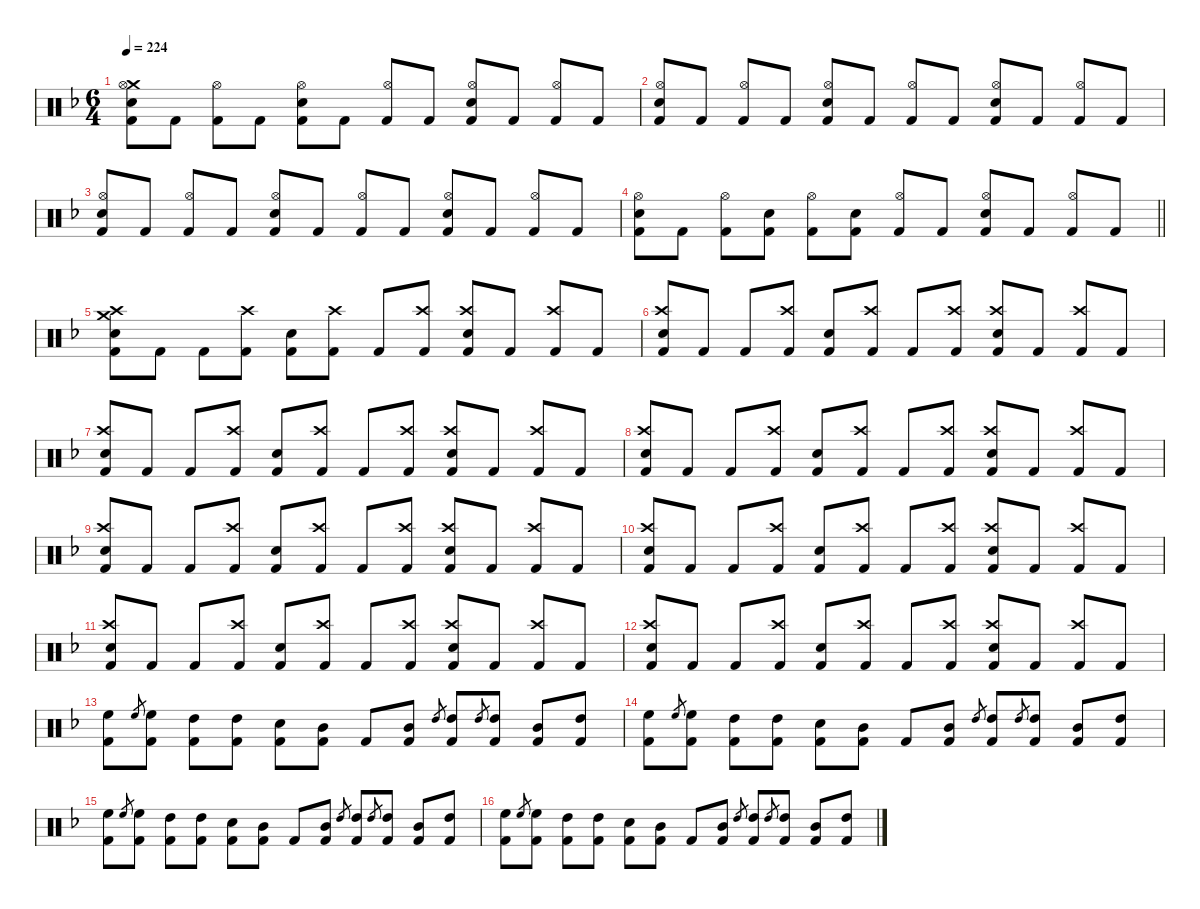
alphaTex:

\hideDynamics
\bracketExtendMode nobrackets
\singleTrackTrackNamePolicy hidden
\multiTrackTrackNamePolicy hidden
\firstSystemTrackNameMode fullname
\firstSystemTrackNameOrientation horizontal
\otherSystemsTrackNameOrientation horizontal
\track ("Drumkit" "Drums") {defaultSystemsLayout 4 instrument percussion}
\staff {score}
\articulation defaults
\ts (6 4)
\tempo 224
\clef neutral
\ks dminor
("Crash medium (hit)"{acc forcenatural} "Hi-Hat (open)"{acc forcenatural} "Snare (hit) 2"{acc forcenatural} "Kick (hit) 2"{acc forcenatural}).8{dy f beam Down} "Kick (hit) 2"{acc forcenatural}.8{beam Down} ("Hi-Hat (open)"{acc forcenatural} "Kick (hit) 2"{acc forcenatural}).8{beam Down} "Kick (hit) 2"{acc forcenatural}.8{beam Down} ("Hi-Hat (open)"{acc forcenatural} "Snare (hit) 2"{acc forcenatural} "Kick (hit) 2"{acc forcenatural}).8{beam Down} "Kick (hit) 2"{acc forcenatural}.8{beam Down} ("Hi-Hat (open)"{acc forcenatural} "Kick (hit) 2"{acc forcenatural}).8{beam Up} "Kick (hit) 2"{acc forcenatural}.8{beam Up} ("Hi-Hat (open)"{acc forcenatural} "Snare (hit) 2"{acc forcenatural} "Kick (hit) 2"{acc forcenatural}).8{beam Up} "Kick (hit) 2"{acc forcenatural}.8{beam Up} ("Hi-Hat (open)"{acc forcenatural} "Kick (hit) 2"{acc forcenatural}).8{beam Up} "Kick (hit) 2"{acc forcenatural}.8{beam Up} |
("Hi-Hat (open)"{acc forcenatural} "Snare (hit) 2"{acc forcenatural} "Kick (hit) 2"{acc forcenatural}).8{beam Up} "Kick (hit) 2"{acc forcenatural}.8{beam Up} ("Hi-Hat (open)"{acc forcenatural} "Kick (hit) 2"{acc forcenatural}).8{beam Up} "Kick (hit) 2"{acc forcenatural}.8{beam Up} ("Hi-Hat (open)"{acc forcenatural} "Snare (hit) 2"{acc forcenatural} "Kick (hit) 2"{acc forcenatural}).8{beam Up} "Kick (hit) 2"{acc forcenatural}.8{beam Up} ("Hi-Hat (open)"{acc forcenatural} "Kick (hit) 2"{acc forcenatural}).8{beam Up} "Kick (hit) 2"{acc forcenatural}.8{beam Up} ("Hi-Hat (open)"{acc forcenatural} "Snare (hit) 2"{acc forcenatural} "Kick (hit) 2"{acc forcenatural}).8{beam Up} "Kick (hit) 2"{acc forcenatural}.8{beam Up} ("Hi-Hat (open)"{acc forcenatural} "Kick (hit) 2"{acc forcenatural}).8{beam Up} "Kick (hit) 2"{acc forcenatural}.8{beam Up} |
("Hi-Hat (open)"{acc forcenatural} "Snare (hit) 2"{acc forcenatural} "Kick (hit) 2"{acc forcenatural}).8{beam Up} "Kick (hit) 2"{acc forcenatural}.8{beam Up} ("Hi-Hat (open)"{acc forcenatural} "Kick (hit) 2"{acc forcenatural}).8{beam Up} "Kick (hit) 2"{acc forcenatural}.8{beam Up} ("Hi-Hat (open)"{acc forcenatural} "Snare (hit) 2"{acc forcenatural} "Kick (hit) 2"{acc forcenatural}).8{beam Up} "Kick (hit) 2"{acc forcenatural}.8{beam Up} ("Hi-Hat (open)"{acc forcenatural} "Kick (hit) 2"{acc forcenatural}).8{beam Up} "Kick (hit) 2"{acc forcenatural}.8{beam Up} ("Hi-Hat (open)"{acc forcenatural} "Snare (hit) 2"{acc forcenatural} "Kick (hit) 2"{acc forcenatural}).8{beam Up} "Kick (hit) 2"{acc forcenatural}.8{beam Up} ("Hi-Hat (open)"{acc forcenatural} "Kick (hit) 2"{acc forcenatural}).8{beam Up} "Kick (hit) 2"{acc forcenatural}.8{beam Up} |
\barLineRight lightlight
("Hi-Hat (open)"{acc forcenatural} "Snare (hit) 2"{acc forcenatural} "Kick (hit) 2"{acc forcenatural}).8{beam Down} "Kick (hit) 2"{acc forcenatural}.8{beam Down} ("Hi-Hat (open)"{acc forcenatural} "Kick (hit) 2"{acc forcenatural}).8{beam Down} ("Snare (hit) 2"{acc forcenatural} "Kick (hit) 2"{acc forcenatural}).8{beam Down} ("Hi-Hat (open)"{acc forcenatural} "Kick (hit) 2"{acc forcenatural}).8{beam Down} ("Snare (hit) 2"{acc forcenatural} "Kick (hit) 2"{acc forcenatural}).8{beam Down} ("Hi-Hat (open)"{acc forcenatural} "Kick (hit) 2"{acc forcenatural}).8{beam Up} "Kick (hit) 2"{acc forcenatural}.8{beam Up} ("Hi-Hat (open)"{acc forcenatural} "Snare (hit) 2"{acc forcenatural} "Kick (hit) 2"{acc forcenatural}).8{beam Up} "Kick (hit) 2"{acc forcenatural}.8{beam Up} ("Hi-Hat (open)"{acc forcenatural} "Kick (hit) 2"{acc forcenatural}).8{beam Up} "Kick (hit) 2"{acc forcenatural}.8{beam Up} |
("Crash medium (hit)"{acc forcenatural} "Crash high (hit)"{acc forcenatural} "Snare (hit) 2"{acc forcenatural} "Kick (hit) 2"{acc forcenatural}).8{beam Down} "Kick (hit) 2"{acc forcenatural}.8{beam Down} "Kick (hit) 2"{acc forcenatural}.8{beam Down} ("Crash high (hit)"{acc forcenatural} "Kick (hit) 2"{acc forcenatural}).8{beam Down} ("Snare (hit) 2"{acc forcenatural} "Kick (hit) 2"{acc forcenatural}).8{beam Down} ("Crash high (hit)"{acc forcenatural} "Kick (hit) 2"{acc forcenatural}).8{beam Down} "Kick (hit) 2"{acc forcenatural}.8{beam Up} ("Crash high (hit)"{acc forcenatural} "Kick (hit) 2"{acc forcenatural}).8{beam Up} ("Crash high (hit)"{acc forcenatural} "Snare (hit) 2"{acc forcenatural} "Kick (hit) 2"{acc forcenatural}).8{beam Up} "Kick (hit) 2"{acc forcenatural}.8{beam Up} ("Crash high (hit)"{acc forcenatural} "Kick (hit) 2"{acc forcenatural}).8{beam Up} "Kick (hit) 2"{acc forcenatural}.8{beam Up} |
("Crash high (hit)"{acc forcenatural} "Snare (hit) 2"{acc forcenatural} "Kick (hit) 2"{acc forcenatural}).8{beam Up} "Kick (hit) 2"{acc forcenatural}.8{beam Up} "Kick (hit) 2"{acc forcenatural}.8{beam Up} ("Crash high (hit)"{acc forcenatural} "Kick (hit) 2"{acc forcenatural}).8{beam Up} ("Snare (hit) 2"{acc forcenatural} "Kick (hit) 2"{acc forcenatural}).8{beam Up} ("Crash high (hit)"{acc forcenatural} "Kick (hit) 2"{acc forcenatural}).8{beam Up} "Kick (hit) 2"{acc forcenatural}.8{beam Up} ("Crash high (hit)"{acc forcenatural} "Kick (hit) 2"{acc forcenatural}).8{beam Up} ("Crash high (hit)"{acc forcenatural} "Snare (hit) 2"{acc forcenatural} "Kick (hit) 2"{acc forcenatural}).8{beam Up} "Kick (hit) 2"{acc forcenatural}.8{beam Up} ("Crash high (hit)"{acc forcenatural} "Kick (hit) 2"{acc forcenatural}).8{beam Up} "Kick (hit) 2"{acc forcenatural}.8{beam Up} |
("Crash high (hit)"{acc forcenatural} "Snare (hit) 2"{acc forcenatural} "Kick (hit) 2"{acc forcenatural}).8{beam Up} "Kick (hit) 2"{acc forcenatural}.8{beam Up} "Kick (hit) 2"{acc forcenatural}.8{beam Up} ("Crash high (hit)"{acc forcenatural} "Kick (hit) 2"{acc forcenatural}).8{beam Up} ("Snare (hit) 2"{acc forcenatural} "Kick (hit) 2"{acc forcenatural}).8{beam Up} ("Crash high (hit)"{acc forcenatural} "Kick (hit) 2"{acc forcenatural}).8{beam Up} "Kick (hit) 2"{acc forcenatural}.8{beam Up} ("Crash high (hit)"{acc forcenatural} "Kick (hit) 2"{acc forcenatural}).8{beam Up} ("Crash high (hit)"{acc forcenatural} "Snare (hit) 2"{acc forcenatural} "Kick (hit) 2"{acc forcenatural}).8{beam Up} "Kick (hit) 2"{acc forcenatural}.8{beam Up} ("Crash high (hit)"{acc forcenatural} "Kick (hit) 2"{acc forcenatural}).8{beam Up} "Kick (hit) 2"{acc forcenatural}.8{beam Up} |
("Crash high (hit)"{acc forcenatural} "Snare (hit) 2"{acc forcenatural} "Kick (hit) 2"{acc forcenatural}).8{beam Up} "Kick (hit) 2"{acc forcenatural}.8{beam Up} "Kick (hit) 2"{acc forcenatural}.8{beam Up} ("Crash high (hit)"{acc forcenatural} "Kick (hit) 2"{acc forcenatural}).8{beam Up} ("Snare (hit) 2"{acc forcenatural} "Kick (hit) 2"{acc forcenatural}).8{beam Up} ("Crash high (hit)"{acc forcenatural} "Kick (hit) 2"{acc forcenatural}).8{beam Up} "Kick (hit) 2"{acc forcenatural}.8{beam Up} ("Crash high (hit)"{acc forcenatural} "Kick (hit) 2"{acc forcenatural}).8{beam Up} ("Crash high (hit)"{acc forcenatural} "Snare (hit) 2"{acc forcenatural} "Kick (hit) 2"{acc forcenatural}).8{beam Up} "Kick (hit) 2"{acc forcenatural}.8{beam Up} ("Crash high (hit)"{acc forcenatural} "Kick (hit) 2"{acc forcenatural}).8{beam Up} "Kick (hit) 2"{acc forcenatural}.8{beam Up} |
("Crash high (hit)"{acc forcenatural} "Snare (hit) 2"{acc forcenatural} "Kick (hit) 2"{acc forcenatural}).8{beam Up} "Kick (hit) 2"{acc forcenatural}.8{beam Up} "Kick (hit) 2"{acc forcenatural}.8{beam Up} ("Crash high (hit)"{acc forcenatural} "Kick (hit) 2"{acc forcenatural}).8{beam Up} ("Snare (hit) 2"{acc forcenatural} "Kick (hit) 2"{acc forcenatural}).8{beam Up} ("Crash high (hit)"{acc forcenatural} "Kick (hit) 2"{acc forcenatural}).8{beam Up} "Kick (hit) 2"{acc forcenatural}.8{beam Up} ("Crash high (hit)"{acc forcenatural} "Kick (hit) 2"{acc forcenatural}).8{beam Up} ("Crash high (hit)"{acc forcenatural} "Snare (hit) 2"{acc forcenatural} "Kick (hit) 2"{acc forcenatural}).8{beam Up} "Kick (hit) 2"{acc forcenatural}.8{beam Up} ("Crash high (hit)"{acc forcenatural} "Kick (hit) 2"{acc forcenatural}).8{beam Up} "Kick (hit) 2"{acc forcenatural}.8{beam Up} |
("Crash high (hit)"{acc forcenatural} "Snare (hit) 2"{acc forcenatural} "Kick (hit) 2"{acc forcenatural}).8{beam Up} "Kick (hit) 2"{acc forcenatural}.8{beam Up} "Kick (hit) 2"{acc forcenatural}.8{beam Up} ("Crash high (hit)"{acc forcenatural} "Kick (hit) 2"{acc forcenatural}).8{beam Up} ("Snare (hit) 2"{acc forcenatural} "Kick (hit) 2"{acc forcenatural}).8{beam Up} ("Crash high (hit)"{acc forcenatural} "Kick (hit) 2"{acc forcenatural}).8{beam Up} "Kick (hit) 2"{acc forcenatural}.8{beam Up} ("Crash high (hit)"{acc forcenatural} "Kick (hit) 2"{acc forcenatural}).8{beam Up} ("Crash high (hit)"{acc forcenatural} "Snare (hit) 2"{acc forcenatural} "Kick (hit) 2"{acc forcenatural}).8{beam Up} "Kick (hit) 2"{acc forcenatural}.8{beam Up} ("Crash high (hit)"{acc forcenatural} "Kick (hit) 2"{acc forcenatural}).8{beam Up} "Kick (hit) 2"{acc forcenatural}.8{beam Up} |
("Crash high (hit)"{acc forcenatural} "Snare (hit) 2"{acc forcenatural} "Kick (hit) 2"{acc forcenatural}).8{beam Up} "Kick (hit) 2"{acc forcenatural}.8{beam Up} "Kick (hit) 2"{acc forcenatural}.8{beam Up} ("Crash high (hit)"{acc forcenatural} "Kick (hit) 2"{acc forcenatural}).8{beam Up} ("Snare (hit) 2"{acc forcenatural} "Kick (hit) 2"{acc forcenatural}).8{beam Up} ("Crash high (hit)"{acc forcenatural} "Kick (hit) 2"{acc forcenatural}).8{beam Up} "Kick (hit) 2"{acc forcenatural}.8{beam Up} ("Crash high (hit)"{acc forcenatural} "Kick (hit) 2"{acc forcenatural}).8{beam Up} ("Crash high (hit)"{acc forcenatural} "Snare (hit) 2"{acc forcenatural} "Kick (hit) 2"{acc forcenatural}).8{beam Up} "Kick (hit) 2"{acc forcenatural}.8{beam Up} ("Crash high (hit)"{acc forcenatural} "Kick (hit) 2"{acc forcenatural}).8{beam Up} "Kick (hit) 2"{acc forcenatural}.8{beam Up} |
("Crash high (hit)"{acc forcenatural} "Snare (hit) 2"{acc forcenatural} "Kick (hit) 2"{acc forcenatural}).8{beam Up} "Kick (hit) 2"{acc forcenatural}.8{beam Up} "Kick (hit) 2"{acc forcenatural}.8{beam Up} ("Crash high (hit)"{acc forcenatural} "Kick (hit) 2"{acc forcenatural}).8{beam Up} ("Snare (hit) 2"{acc forcenatural} "Kick (hit) 2"{acc forcenatural}).8{beam Up} ("Crash high (hit)"{acc forcenatural} "Kick (hit) 2"{acc forcenatural}).8{beam Up} "Kick (hit) 2"{acc forcenatural}.8{beam Up} ("Crash high (hit)"{acc forcenatural} "Kick (hit) 2"{acc forcenatural}).8{beam Up} ("Crash high (hit)"{acc forcenatural} "Snare (hit) 2"{acc forcenatural} "Kick (hit) 2"{acc forcenatural}).8{beam Up} "Kick (hit) 2"{acc forcenatural}.8{beam Up} ("Crash high (hit)"{acc forcenatural} "Kick (hit) 2"{acc forcenatural}).8{beam Up} "Kick (hit) 2"{acc forcenatural}.8{beam Up} |
("High Floor Tom (hit)"{acc forcenatural} "Kick (hit) 2"{acc forcenatural}).8{beam Down} "High Floor Tom (hit)"{acc forcenatural}.8{gr dy mf beam Up} ("High Floor Tom (hit)"{acc forcenatural} "Kick (hit) 2"{acc forcenatural}).8{dy f beam Down} ("High Tom (hit)"{acc forcenatural} "Kick (hit) 2"{acc forcenatural}).8{beam Down} ("High Tom (hit)"{acc forcenatural} "Kick (hit) 2"{acc forcenatural}).8{beam Down} ("Snare (hit) 2"{acc forcenatural} "Kick (hit) 2"{acc forcenatural}).8{beam Down} ("Mid Tom (hit)"{acc forcenatural} "Kick (hit) 2"{acc forcenatural}).8{beam Down} "Kick (hit) 2"{acc forcenatural}.8{beam Up} ("Mid Tom (hit)"{acc forcenatural} "Kick (hit) 2"{acc forcenatural}).8{beam Up} "High Tom (hit)"{acc forcenatural}.8{gr dy mf beam Up} ("High Tom (hit)"{acc forcenatural} "Kick (hit) 2"{acc forcenatural}).8{dy f beam Up} "High Tom (hit)"{acc forcenatural}.8{gr dy mf beam Up} ("High Tom (hit)"{acc forcenatural} "Kick (hit) 2"{acc forcenatural}).8{dy f beam Up} ("Mid Tom (hit)"{acc forcenatural} "Kick (hit) 2"{acc forcenatural}).8{beam Up} ("High Tom (hit)"{acc forcenatural} "Kick (hit) 2"{acc forcenatural}).8{beam Up} |
("High Floor Tom (hit)"{acc forcenatural} "Kick (hit) 2"{acc forcenatural}).8{beam Down} "High Floor Tom (hit)"{acc forcenatural}.8{gr dy mf beam Up} ("High Floor Tom (hit)"{acc forcenatural} "Kick (hit) 2"{acc forcenatural}).8{dy f beam Down} ("High Tom (hit)"{acc forcenatural} "Kick (hit) 2"{acc forcenatural}).8{beam Down} ("High Tom (hit)"{acc forcenatural} "Kick (hit) 2"{acc forcenatural}).8{beam Down} ("Snare (hit) 2"{acc forcenatural} "Kick (hit) 2"{acc forcenatural}).8{beam Down} ("Mid Tom (hit)"{acc forcenatural} "Kick (hit) 2"{acc forcenatural}).8{beam Down} "Kick (hit) 2"{acc forcenatural}.8{beam Up} ("Mid Tom (hit)"{acc forcenatural} "Kick (hit) 2"{acc forcenatural}).8{beam Up} "High Tom (hit)"{acc forcenatural}.8{gr dy mf beam Up} ("High Tom (hit)"{acc forcenatural} "Kick (hit) 2"{acc forcenatural}).8{dy f beam Up} "High Tom (hit)"{acc forcenatural}.8{gr dy mf beam Up} ("High Tom (hit)"{acc forcenatural} "Kick (hit) 2"{acc forcenatural}).8{dy f beam Up} ("Mid Tom (hit)"{acc forcenatural} "Kick (hit) 2"{acc forcenatural}).8{beam Up} ("High Tom (hit)"{acc forcenatural} "Kick (hit) 2"{acc forcenatural}).8{beam Up} |
("High Floor Tom (hit)"{acc forcenatural} "Kick (hit) 2"{acc forcenatural}).8{beam Down} "High Floor Tom (hit)"{acc forcenatural}.8{gr dy mf beam Up} ("High Floor Tom (hit)"{acc forcenatural} "Kick (hit) 2"{acc forcenatural}).8{dy f beam Down} ("High Tom (hit)"{acc forcenatural} "Kick (hit) 2"{acc forcenatural}).8{beam Down} ("High Tom (hit)"{acc forcenatural} "Kick (hit) 2"{acc forcenatural}).8{beam Down} ("Snare (hit) 2"{acc forcenatural} "Kick (hit) 2"{acc forcenatural}).8{beam Down} ("Mid Tom (hit)"{acc forcenatural} "Kick (hit) 2"{acc forcenatural}).8{beam Down} "Kick (hit) 2"{acc forcenatural}.8{beam Up} ("Mid Tom (hit)"{acc forcenatural} "Kick (hit) 2"{acc forcenatural}).8{beam Up} "High Tom (hit)"{acc forcenatural}.8{gr dy mf beam Up} ("High Tom (hit)"{acc forcenatural} "Kick (hit) 2"{acc forcenatural}).8{dy f beam Up} "High Tom (hit)"{acc forcenatural}.8{gr dy mf beam Up} ("High Tom (hit)"{acc forcenatural} "Kick (hit) 2"{acc forcenatural}).8{dy f beam Up} ("Mid Tom (hit)"{acc forcenatural} "Kick (hit) 2"{acc forcenatural}).8{beam Up} ("High Tom (hit)"{acc forcenatural} "Kick (hit) 2"{acc forcenatural}).8{beam Up} |
("High Floor Tom (hit)"{acc forcenatural} "Kick (hit) 2"{acc forcenatural}).8{beam Down} "High Floor Tom (hit)"{acc forcenatural}.8{gr dy mf beam Up} ("High Floor Tom (hit)"{acc forcenatural} "Kick (hit) 2"{acc forcenatural}).8{dy f beam Down} ("High Tom (hit)"{acc forcenatural} "Kick (hit) 2"{acc forcenatural}).8{beam Down} ("High Tom (hit)"{acc forcenatural} "Kick (hit) 2"{acc forcenatural}).8{beam Down} ("Snare (hit) 2"{acc forcenatural} "Kick (hit) 2"{acc forcenatural}).8{beam Down} ("Mid Tom (hit)"{acc forcenatural} "Kick (hit) 2"{acc forcenatural}).8{beam Down} "Kick (hit) 2"{acc forcenatural}.8{beam Up} ("Mid Tom (hit)"{acc forcenatural} "Kick (hit) 2"{acc forcenatural}).8{beam Up} "High Tom (hit)"{acc forcenatural}.8{gr dy mf beam Up} ("High Tom (hit)"{acc forcenatural} "Kick (hit) 2"{acc forcenatural}).8{dy f beam Up} "High Tom (hit)"{acc forcenatural}.8{gr dy mf beam Up} ("High Tom (hit)"{acc forcenatural} "Kick (hit) 2"{acc forcenatural}).8{dy f beam Up} ("Mid Tom (hit)"{acc forcenatural} "Kick (hit) 2"{acc forcenatural}).8{beam Up} ("High Tom (hit)"{acc forcenatural} "Kick (hit) 2"{acc forcenatural}).8{beam Up}
